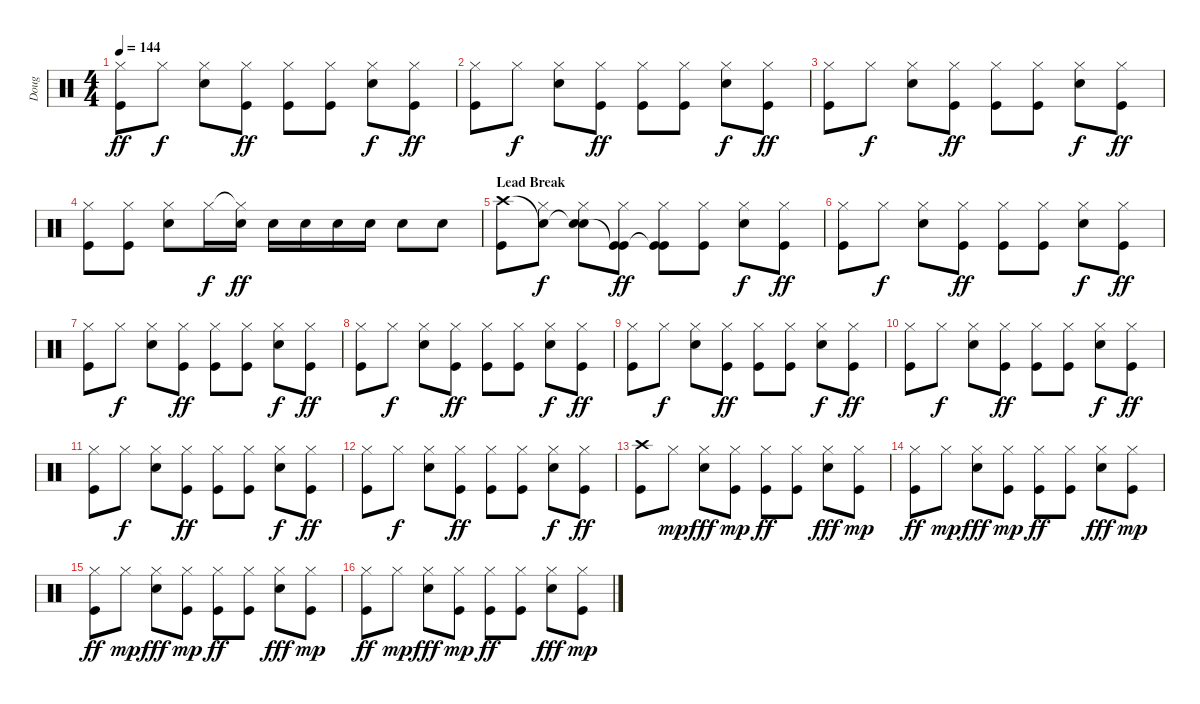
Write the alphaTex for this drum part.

\track ("Doug" "Doug") {instrument percussion}
\staff {score}
\articulation defaults
\ts (4 4)
\tempo 144
\clef neutral
\ks c
("Hi-Hat (closed)" "Kick (hit)").8{dy ff} "Hi-Hat (closed)".8{dy f} ("Hi-Hat (closed)" "Electric Snare (hit)").8 ("Hi-Hat (closed)" "Kick (hit)").8{dy ff} ("Hi-Hat (closed)" "Kick (hit)").8 ("Hi-Hat (closed)" "Kick (hit)").8 ("Hi-Hat (closed)" "Electric Snare (hit)").8{dy f} ("Hi-Hat (closed)" "Kick (hit)").8{dy ff} |
("Hi-Hat (closed)" "Kick (hit)").8 "Hi-Hat (closed)".8{dy f} ("Hi-Hat (closed)" "Electric Snare (hit)").8 ("Hi-Hat (closed)" "Kick (hit)").8{dy ff} ("Hi-Hat (closed)" "Kick (hit)").8 ("Hi-Hat (closed)" "Kick (hit)").8 ("Hi-Hat (closed)" "Electric Snare (hit)").8{dy f} ("Hi-Hat (closed)" "Kick (hit)").8{dy ff} |
("Hi-Hat (closed)" "Kick (hit)").8 "Hi-Hat (closed)".8{dy f} ("Hi-Hat (closed)" "Electric Snare (hit)").8 ("Hi-Hat (closed)" "Kick (hit)").8{dy ff} ("Hi-Hat (closed)" "Kick (hit)").8 ("Hi-Hat (closed)" "Kick (hit)").8 ("Hi-Hat (closed)" "Electric Snare (hit)").8{dy f} ("Hi-Hat (closed)" "Kick (hit)").8{dy ff} |
("Hi-Hat (closed)" "Kick (hit)").8 ("Hi-Hat (closed)" "Kick (hit)").8 ("Hi-Hat (closed)" "Electric Snare (hit)").8 "Hi-Hat (closed)".16{dy f} ("Hi-Hat (closed)"{t} "Electric Snare (hit)").16{dy ff} "Electric Snare (hit)".16 "Electric Snare (hit)".16 "Electric Snare (hit)".16 "Electric Snare (hit)".16 "Electric Snare (hit)".8 "Electric Snare (hit)".8 |
\section ("" "Lead Break")
("Crash high (hit)" "Kick (hit)").8 ("Snare (hit)"{t} "Hi-Hat (closed)").8{dy f} ("Electric Snare (hit)"{t} "Hi-Hat (closed)" "Electric Snare (hit)").8 ("Kick (hit)"{t} "Hi-Hat (closed)" "Kick (hit)").8{dy ff} ("Kick (hit)"{t} "Hi-Hat (closed)" "Kick (hit)").8 ("Hi-Hat (closed)" "Kick (hit)").8 ("Hi-Hat (closed)" "Electric Snare (hit)").8{dy f} ("Hi-Hat (closed)" "Kick (hit)").8{dy ff} |
("Hi-Hat (closed)" "Kick (hit)").8 "Hi-Hat (closed)".8{dy f} ("Hi-Hat (closed)" "Electric Snare (hit)").8 ("Hi-Hat (closed)" "Kick (hit)").8{dy ff} ("Hi-Hat (closed)" "Kick (hit)").8 ("Hi-Hat (closed)" "Kick (hit)").8 ("Hi-Hat (closed)" "Electric Snare (hit)").8{dy f} ("Hi-Hat (closed)" "Kick (hit)").8{dy ff} |
("Hi-Hat (closed)" "Kick (hit)").8 "Hi-Hat (closed)".8{dy f} ("Hi-Hat (closed)" "Electric Snare (hit)").8 ("Hi-Hat (closed)" "Kick (hit)").8{dy ff} ("Hi-Hat (closed)" "Kick (hit)").8 ("Hi-Hat (closed)" "Kick (hit)").8 ("Hi-Hat (closed)" "Electric Snare (hit)").8{dy f} ("Hi-Hat (closed)" "Kick (hit)").8{dy ff} |
("Hi-Hat (closed)" "Kick (hit)").8 "Hi-Hat (closed)".8{dy f} ("Hi-Hat (closed)" "Electric Snare (hit)").8 ("Hi-Hat (closed)" "Kick (hit)").8{dy ff} ("Hi-Hat (closed)" "Kick (hit)").8 ("Hi-Hat (closed)" "Kick (hit)").8 ("Hi-Hat (closed)" "Electric Snare (hit)").8{dy f} ("Hi-Hat (closed)" "Kick (hit)").8{dy ff} |
("Hi-Hat (closed)" "Kick (hit)").8 "Hi-Hat (closed)".8{dy f} ("Hi-Hat (closed)" "Electric Snare (hit)").8 ("Hi-Hat (closed)" "Kick (hit)").8{dy ff} ("Hi-Hat (closed)" "Kick (hit)").8 ("Hi-Hat (closed)" "Kick (hit)").8 ("Hi-Hat (closed)" "Electric Snare (hit)").8{dy f} ("Hi-Hat (closed)" "Kick (hit)").8{dy ff} |
("Hi-Hat (closed)" "Kick (hit)").8 "Hi-Hat (closed)".8{dy f} ("Hi-Hat (closed)" "Electric Snare (hit)").8 ("Hi-Hat (closed)" "Kick (hit)").8{dy ff} ("Hi-Hat (closed)" "Kick (hit)").8 ("Hi-Hat (closed)" "Kick (hit)").8 ("Hi-Hat (closed)" "Electric Snare (hit)").8{dy f} ("Hi-Hat (closed)" "Kick (hit)").8{dy ff} |
("Hi-Hat (closed)" "Kick (hit)").8 "Hi-Hat (closed)".8{dy f} ("Hi-Hat (closed)" "Electric Snare (hit)").8 ("Hi-Hat (closed)" "Kick (hit)").8{dy ff} ("Hi-Hat (closed)" "Kick (hit)").8 ("Hi-Hat (closed)" "Kick (hit)").8 ("Hi-Hat (closed)" "Electric Snare (hit)").8{dy f} ("Hi-Hat (closed)" "Kick (hit)").8{dy ff} |
("Hi-Hat (closed)" "Kick (hit)").8 "Hi-Hat (closed)".8{dy f} ("Hi-Hat (closed)" "Electric Snare (hit)").8 ("Hi-Hat (closed)" "Kick (hit)").8{dy ff} ("Hi-Hat (closed)" "Kick (hit)").8 ("Hi-Hat (closed)" "Kick (hit)").8 ("Hi-Hat (closed)" "Electric Snare (hit)").8{dy f} ("Hi-Hat (closed)" "Kick (hit)").8{dy ff} |
("Kick (hit)" "Crash high (hit)").8 "Hi-Hat (closed)".8{dy mp} ("Hi-Hat (closed)" "Electric Snare (hit)").8{dy fff} ("Hi-Hat (closed)" "Kick (hit)").8{dy mp} ("Hi-Hat (closed)" "Kick (hit)").8{dy ff} ("Hi-Hat (closed)" "Kick (hit)").8 ("Hi-Hat (closed)" "Electric Snare (hit)").8{dy fff} ("Hi-Hat (closed)" "Kick (hit)").8{dy mp} |
("Hi-Hat (closed)" "Kick (hit)").8{dy ff} "Hi-Hat (closed)".8{dy mp} ("Hi-Hat (closed)" "Electric Snare (hit)").8{dy fff} ("Hi-Hat (closed)" "Kick (hit)").8{dy mp} ("Hi-Hat (closed)" "Kick (hit)").8{dy ff} ("Hi-Hat (closed)" "Kick (hit)").8 ("Hi-Hat (closed)" "Electric Snare (hit)").8{dy fff} ("Hi-Hat (closed)" "Kick (hit)").8{dy mp} |
("Hi-Hat (closed)" "Kick (hit)").8{dy ff} "Hi-Hat (closed)".8{dy mp} ("Hi-Hat (closed)" "Electric Snare (hit)").8{dy fff} ("Hi-Hat (closed)" "Kick (hit)").8{dy mp} ("Hi-Hat (closed)" "Kick (hit)").8{dy ff} ("Hi-Hat (closed)" "Kick (hit)").8 ("Hi-Hat (closed)" "Electric Snare (hit)").8{dy fff} ("Hi-Hat (closed)" "Kick (hit)").8{dy mp} |
("Hi-Hat (closed)" "Kick (hit)").8{dy ff} "Hi-Hat (closed)".8{dy mp} ("Hi-Hat (closed)" "Electric Snare (hit)").8{dy fff} ("Hi-Hat (closed)" "Kick (hit)").8{dy mp} ("Hi-Hat (closed)" "Kick (hit)").8{dy ff} ("Hi-Hat (closed)" "Kick (hit)").8 ("Hi-Hat (closed)" "Electric Snare (hit)").8{dy fff} ("Hi-Hat (closed)" "Kick (hit)").8{dy mp}
